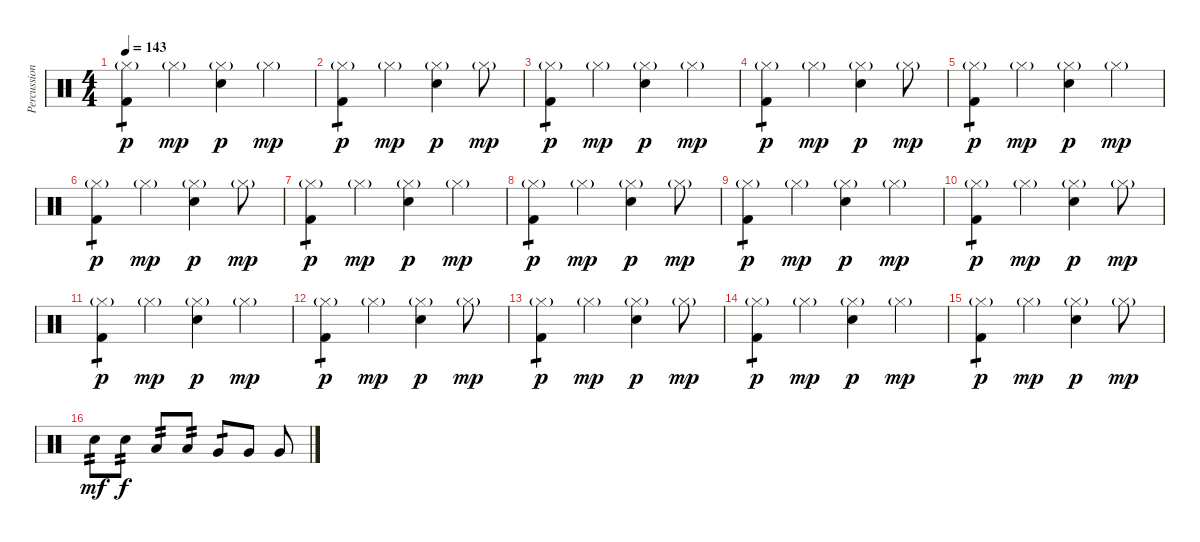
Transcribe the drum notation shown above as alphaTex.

\track ("Percussion" "Percussion") {instrument percussion}
\staff {score}
\articulation defaults
\ts (4 4)
\tempo 143
\clef neutral
\ks c
("Hi-Hat (closed)"{g} "Kick (hit) 2").4{tp 1 dy p} "Hi-Hat (closed)"{g}.4{dy mp} ("Electric Snare (hit)" "Hi-Hat (closed)"{g}).4{dy p} "Hi-Hat (closed)"{g}.4{dy mp} |
("Hi-Hat (closed)"{g} "Kick (hit) 2").4{tp 1 dy p} "Hi-Hat (closed)"{g}.4{dy mp} ("Electric Snare (hit)" "Hi-Hat (closed)"{g}).4{dy p} "Hi-Hat (closed)"{g}.8{dy mp} |
("Hi-Hat (closed)"{g} "Kick (hit) 2").4{tp 1 dy p} "Hi-Hat (closed)"{g}.4{dy mp} ("Electric Snare (hit)" "Hi-Hat (closed)"{g}).4{dy p} "Hi-Hat (closed)"{g}.4{dy mp} |
("Hi-Hat (closed)"{g} "Kick (hit) 2").4{tp 1 dy p} "Hi-Hat (closed)"{g}.4{dy mp} ("Electric Snare (hit)" "Hi-Hat (closed)"{g}).4{dy p} "Hi-Hat (closed)"{g}.8{dy mp} |
("Hi-Hat (closed)"{g} "Kick (hit) 2").4{tp 1 dy p} "Hi-Hat (closed)"{g}.4{dy mp} ("Electric Snare (hit)" "Hi-Hat (closed)"{g}).4{dy p} "Hi-Hat (closed)"{g}.4{dy mp} |
("Hi-Hat (closed)"{g} "Kick (hit) 2").4{tp 1 dy p} "Hi-Hat (closed)"{g}.4{dy mp} ("Electric Snare (hit)" "Hi-Hat (closed)"{g}).4{dy p} "Hi-Hat (closed)"{g}.8{dy mp} |
("Hi-Hat (closed)"{g} "Kick (hit) 2").4{tp 1 dy p} "Hi-Hat (closed)"{g}.4{dy mp} ("Electric Snare (hit)" "Hi-Hat (closed)"{g}).4{dy p} "Hi-Hat (closed)"{g}.4{dy mp} |
("Hi-Hat (closed)"{g} "Kick (hit) 2").4{tp 1 dy p} "Hi-Hat (closed)"{g}.4{dy mp} ("Electric Snare (hit)" "Hi-Hat (closed)"{g}).4{dy p} "Hi-Hat (closed)"{g}.8{dy mp} |
("Hi-Hat (closed)"{g} "Kick (hit) 2").4{tp 1 dy p} "Hi-Hat (closed)"{g}.4{dy mp} ("Electric Snare (hit)" "Hi-Hat (closed)"{g}).4{dy p} "Hi-Hat (closed)"{g}.4{dy mp} |
("Hi-Hat (closed)"{g} "Kick (hit) 2").4{tp 1 dy p} "Hi-Hat (closed)"{g}.4{dy mp} ("Electric Snare (hit)" "Hi-Hat (closed)"{g}).4{dy p} "Hi-Hat (closed)"{g}.8{dy mp} |
("Hi-Hat (closed)"{g} "Kick (hit) 2").4{tp 1 dy p} "Hi-Hat (closed)"{g}.4{dy mp} ("Electric Snare (hit)" "Hi-Hat (closed)"{g}).4{dy p} "Hi-Hat (closed)"{g}.4{dy mp} |
("Hi-Hat (closed)"{g} "Kick (hit) 2").4{tp 1 dy p} "Hi-Hat (closed)"{g}.4{dy mp} ("Electric Snare (hit)" "Hi-Hat (closed)"{g}).4{dy p} "Hi-Hat (closed)"{g}.8{dy mp} |
("Hi-Hat (closed)"{g} "Kick (hit) 2").4{tp 1 dy p} "Hi-Hat (closed)"{g}.4{dy mp} ("Electric Snare (hit)" "Hi-Hat (closed)"{g}).4{dy p} "Hi-Hat (closed)"{g}.8{dy mp} |
("Hi-Hat (closed)"{g} "Kick (hit) 2").4{tp 1 dy p} "Hi-Hat (closed)"{g}.4{dy mp} ("Electric Snare (hit)" "Hi-Hat (closed)"{g}).4{dy p} "Hi-Hat (closed)"{g}.4{dy mp} |
("Hi-Hat (closed)"{g} "Kick (hit) 2").4{tp 1 dy p} "Hi-Hat (closed)"{g}.4{dy mp} ("Electric Snare (hit)" "Hi-Hat (closed)"{g}).4{dy p} "Hi-Hat (closed)"{g}.8{dy mp} |
"Electric Snare (hit)".8{tp 2 dy mf} "Electric Snare (hit)".8{tp 2 dy f} "Low Floor Tom (hit)".8{tp 2} "Low Floor Tom (hit)".8{tp 2} "Very Low Tom (hit)".8{tp 1} "Very Low Tom (hit)".8 "Very Low Tom (hit)".8
